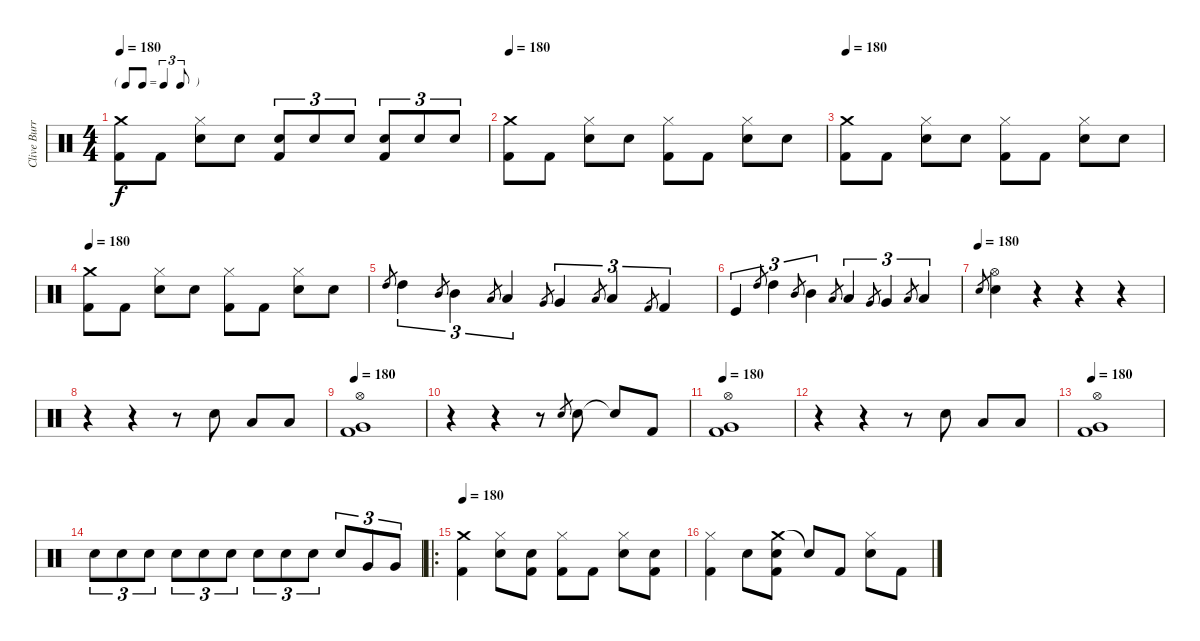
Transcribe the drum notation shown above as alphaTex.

\track ("Clive Burr" "Clive Burr") {instrument percussion}
\staff {score}
\articulation defaults
\ts (4 4)
\tf triplet8th
\tempo 180
\clef neutral
\ks c
("Crash medium (hit)" "Kick (hit) 2").8{dy f} "Kick (hit) 2".8 ("Hi-Hat (closed)" "Electric Snare (hit)").8 "Electric Snare (hit)".8 ("Electric Snare (hit)" "Kick (hit) 2").8{tu (3 2)} "Electric Snare (hit)".8{tu (3 2)} "Electric Snare (hit)".8{tu (3 2)} ("Electric Snare (hit)" "Kick (hit) 2").8{tu (3 2)} "Electric Snare (hit)".8{tu (3 2)} "Electric Snare (hit)".8{tu (3 2)} |
\tempo 180
("Crash medium (hit)" "Kick (hit) 2").8 "Kick (hit) 2".8 ("Hi-Hat (closed)" "Electric Snare (hit)").8 "Electric Snare (hit)".8 ("Hi-Hat (closed)" "Kick (hit) 2").8 "Kick (hit) 2".8 ("Hi-Hat (closed)" "Electric Snare (hit)").8 "Electric Snare (hit)".8 |
\tempo 180
("Crash medium (hit)" "Kick (hit) 2").8 "Kick (hit) 2".8 ("Hi-Hat (closed)" "Electric Snare (hit)").8 "Electric Snare (hit)".8 ("Hi-Hat (closed)" "Kick (hit) 2").8 "Kick (hit) 2".8 ("Hi-Hat (closed)" "Electric Snare (hit)").8 "Electric Snare (hit)".8 |
\tempo 180
("Crash medium (hit)" "Kick (hit) 2").8 "Kick (hit) 2".8 ("Hi-Hat (closed)" "Electric Snare (hit)").8 "Electric Snare (hit)".8 ("Hi-Hat (closed)" "Kick (hit) 2").8 "Kick (hit) 2".8 ("Hi-Hat (closed)" "Electric Snare (hit)").8 "Electric Snare (hit)".8 |
"High Tom (hit)".8{gr} "High Tom (hit)".4{tu (3 2)} "Mid Tom (hit)".8{gr} "Mid Tom (hit)".4{tu (3 2)} "Low Tom (hit)".8{gr} "Low Tom (hit)".4{tu (3 2)} "Very Low Tom (hit)".8{gr} "Very Low Tom (hit)".4{tu (3 2)} "Low Floor Tom (hit)".8{gr} "Low Floor Tom (hit)".4{tu (3 2)} "Kick (hit) 2".8{gr} "Kick (hit) 2".4{tu (3 2)} |
"Kick (hit)".4{tu (3 2)} "High Tom (hit)".8{gr} "High Tom (hit)".4{tu (3 2)} "Mid Tom (hit)".8{gr} "Mid Tom (hit)".4{tu (3 2)} "Low Tom (hit)".8{gr} "Low Tom (hit)".4{tu (3 2)} "Very Low Tom (hit)".8{gr} "Very Low Tom (hit)".4{tu (3 2)} "Low Floor Tom (hit)".8{gr} "Low Floor Tom (hit)".4{tu (3 2)} |
\tempo (180)
"Electric Snare (hit)".8{gr} ("Hi-Hat (open)" "Electric Snare (hit)").4 r.4 r.4 r.4 |
r.4 r.4 r.8 "Electric Snare (hit)".8 "Low Floor Tom (hit)".8 "Low Floor Tom (hit)".8 |
\tempo 180
("Hi-Hat (open)" "Very Low Tom (hit)" "Kick (hit) 2").1 |
r.4 r.4 r.8 "Electric Snare (hit)".8{gr} "Electric Snare (hit)".8 "Snare (hit)"{t}.8 "Kick (hit) 2".8 |
\tempo 180
("Hi-Hat (open)" "Very Low Tom (hit)" "Kick (hit) 2").1 |
r.4 r.4 r.8 "Electric Snare (hit)".8 "Low Floor Tom (hit)".8 "Low Floor Tom (hit)".8 |
\tempo 180
("Hi-Hat (open)" "Very Low Tom (hit)" "Kick (hit) 2").1 |
"Electric Snare (hit)".8{tu (3 2)} "Electric Snare (hit)".8{tu (3 2)} "Electric Snare (hit)".8{tu (3 2)} "Electric Snare (hit)".8{tu (3 2)} "Electric Snare (hit)".8{tu (3 2)} "Electric Snare (hit)".8{tu (3 2)} "Electric Snare (hit)".8{tu (3 2)} "Electric Snare (hit)".8{tu (3 2)} "Electric Snare (hit)".8{tu (3 2)} "Electric Snare (hit)".8{tu (3 2)} "Very Low Tom (hit)".8{tu (3 2)} "Very Low Tom (hit)".8{tu (3 2)} |
\ro
\tempo 180
("Crash medium (hit)" "Kick (hit) 2").4 ("Hi-Hat (closed)" "Electric Snare (hit)").8 ("Electric Snare (hit)" "Kick (hit) 2").8 ("Hi-Hat (closed)" "Kick (hit) 2").8 "Kick (hit) 2".8 ("Hi-Hat (closed)" "Electric Snare (hit)").8 ("Electric Snare (hit)" "Kick (hit) 2").8 |
("Hi-Hat (closed)" "Kick (hit) 2").4 "Electric Snare (hit)".8 ("Crash medium (hit)" "Electric Snare (hit)" "Kick (hit) 2").8 "Snare (hit)"{t}.8 "Kick (hit) 2".8 ("Hi-Hat (closed)" "Electric Snare (hit)").8 "Kick (hit) 2".8
